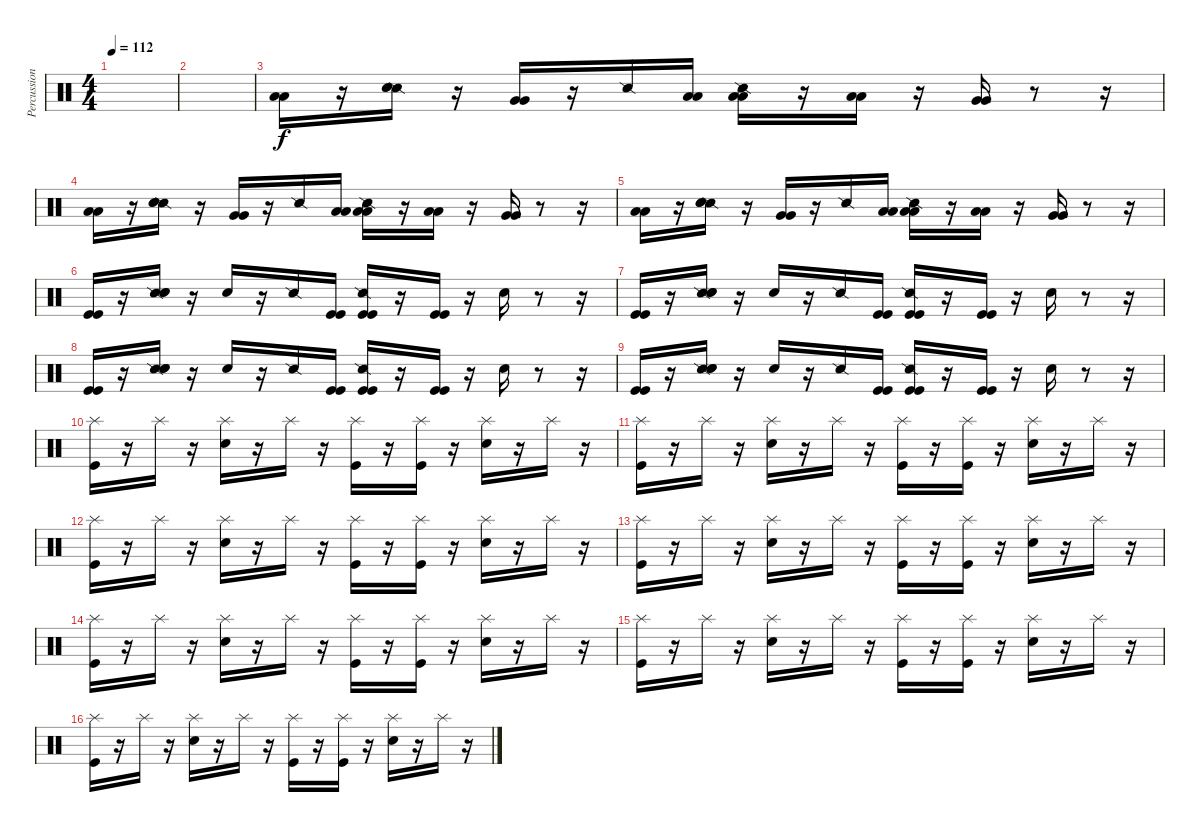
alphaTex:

\track ("Percussions" "Percussion") {instrument percussion}
\staff {score}
\articulation defaults
\ts (4 4)
\tempo 112
\clef neutral
\ks c
|
|
("Low Floor Tom (hit)" "Low Floor Tom (hit)").16 r.16 ("Snare (side stick) 2" "Snare (hit)"{x} "Snare (hit)"{x}).16 r.16 ("Very Low Tom (hit)" "Very Low Tom (hit)").16 r.16 "Snare (side stick) 2".16 ("Low Floor Tom (hit)" "Low Floor Tom (hit)").16 ("Snare (side stick) 2" "Low Floor Tom (hit)" "Low Floor Tom (hit)").16 r.16 ("Low Floor Tom (hit)" "Low Floor Tom (hit)").16 r.16 ("Very Low Tom (hit)" "Very Low Tom (hit)").16 r.8 r.16 |
("Low Floor Tom (hit)" "Low Floor Tom (hit)").16 r.16 ("Snare (side stick) 2" "Snare (hit)"{x} "Snare (hit)"{x}).16 r.16 ("Very Low Tom (hit)" "Very Low Tom (hit)").16 r.16 "Snare (side stick) 2".16 ("Low Floor Tom (hit)" "Low Floor Tom (hit)").16 ("Snare (side stick) 2" "Low Floor Tom (hit)" "Low Floor Tom (hit)").16 r.16 ("Low Floor Tom (hit)" "Low Floor Tom (hit)").16 r.16 ("Very Low Tom (hit)" "Very Low Tom (hit)").16 r.8 r.16 |
("Low Floor Tom (hit)" "Low Floor Tom (hit)").16 r.16 ("Snare (side stick) 2" "Snare (hit)"{x} "Snare (hit)"{x}).16 r.16 ("Very Low Tom (hit)" "Very Low Tom (hit)").16 r.16 "Snare (side stick) 2".16 ("Low Floor Tom (hit)" "Low Floor Tom (hit)").16 ("Snare (side stick) 2" "Low Floor Tom (hit)" "Low Floor Tom (hit)").16 r.16 ("Low Floor Tom (hit)" "Low Floor Tom (hit)").16 r.16 ("Very Low Tom (hit)" "Very Low Tom (hit)").16 r.8 r.16 |
("Kick (hit)" "Kick (hit)").16 r.16 ("Snare (side stick) 2" "Snare (hit)"{x} "Snare (hit)"{x}).16 r.16 "Electric Snare (hit)".16 r.16 "Snare (side stick) 2".16 ("Kick (hit)" "Kick (hit)").16 ("Snare (side stick) 2" "Kick (hit)" "Kick (hit)").16 r.16 ("Kick (hit)" "Kick (hit)").16 r.16 "Electric Snare (hit)".16 r.8 r.16 |
("Kick (hit)" "Kick (hit)").16 r.16 ("Snare (side stick) 2" "Snare (hit)"{x} "Snare (hit)"{x}).16 r.16 "Electric Snare (hit)".16 r.16 "Snare (side stick) 2".16 ("Kick (hit)" "Kick (hit)").16 ("Snare (side stick) 2" "Kick (hit)" "Kick (hit)").16 r.16 ("Kick (hit)" "Kick (hit)").16 r.16 "Electric Snare (hit)".16 r.8 r.16 |
("Kick (hit)" "Kick (hit)").16 r.16 ("Snare (side stick) 2" "Snare (hit)"{x} "Snare (hit)"{x}).16 r.16 "Electric Snare (hit)".16 r.16 "Snare (side stick) 2".16 ("Kick (hit)" "Kick (hit)").16 ("Snare (side stick) 2" "Kick (hit)" "Kick (hit)").16 r.16 ("Kick (hit)" "Kick (hit)").16 r.16 "Electric Snare (hit)".16 r.8 r.16 |
("Kick (hit)" "Kick (hit)").16 r.16 ("Snare (side stick) 2" "Snare (hit)"{x} "Snare (hit)"{x}).16 r.16 "Electric Snare (hit)".16 r.16 "Snare (side stick) 2".16 ("Kick (hit)" "Kick (hit)").16 ("Snare (side stick) 2" "Kick (hit)" "Kick (hit)").16 r.16 ("Kick (hit)" "Kick (hit)").16 r.16 "Electric Snare (hit)".16 r.8 r.16 |
("Splash (hit)" "Kick (hit)").16 r.16 "Splash (hit)".16 r.16 ("Splash (hit)" "Electric Snare (hit)").16 r.16 "Splash (hit)".16 r.16 ("Splash (hit)" "Kick (hit)").16 r.16 ("Splash (hit)" "Kick (hit)").16 r.16 ("Splash (hit)" "Electric Snare (hit)").16 r.16 "Splash (hit)".16 r.16 |
("Splash (hit)" "Kick (hit)").16 r.16 "Splash (hit)".16 r.16 ("Splash (hit)" "Electric Snare (hit)").16 r.16 "Splash (hit)".16 r.16 ("Splash (hit)" "Kick (hit)").16 r.16 ("Splash (hit)" "Kick (hit)").16 r.16 ("Splash (hit)" "Electric Snare (hit)").16 r.16 "Splash (hit)".16 r.16 |
("Splash (hit)" "Kick (hit)").16 r.16 "Splash (hit)".16 r.16 ("Splash (hit)" "Electric Snare (hit)").16 r.16 "Splash (hit)".16 r.16 ("Splash (hit)" "Kick (hit)").16 r.16 ("Splash (hit)" "Kick (hit)").16 r.16 ("Splash (hit)" "Electric Snare (hit)").16 r.16 "Splash (hit)".16 r.16 |
("Splash (hit)" "Kick (hit)").16 r.16 "Splash (hit)".16 r.16 ("Splash (hit)" "Electric Snare (hit)").16 r.16 "Splash (hit)".16 r.16 ("Splash (hit)" "Kick (hit)").16 r.16 ("Splash (hit)" "Kick (hit)").16 r.16 ("Splash (hit)" "Electric Snare (hit)").16 r.16 "Splash (hit)".16 r.16 |
("Splash (hit)" "Kick (hit)").16 r.16 "Splash (hit)".16 r.16 ("Splash (hit)" "Electric Snare (hit)").16 r.16 "Splash (hit)".16 r.16 ("Splash (hit)" "Kick (hit)").16 r.16 ("Splash (hit)" "Kick (hit)").16 r.16 ("Splash (hit)" "Electric Snare (hit)").16 r.16 "Splash (hit)".16 r.16 |
("Splash (hit)" "Kick (hit)").16 r.16 "Splash (hit)".16 r.16 ("Splash (hit)" "Electric Snare (hit)").16 r.16 "Splash (hit)".16 r.16 ("Splash (hit)" "Kick (hit)").16 r.16 ("Splash (hit)" "Kick (hit)").16 r.16 ("Splash (hit)" "Electric Snare (hit)").16 r.16 "Splash (hit)".16 r.16 |
("Splash (hit)" "Kick (hit)").16 r.16 "Splash (hit)".16 r.16 ("Splash (hit)" "Electric Snare (hit)").16 r.16 "Splash (hit)".16 r.16 ("Splash (hit)" "Kick (hit)").16 r.16 ("Splash (hit)" "Kick (hit)").16 r.16 ("Splash (hit)" "Electric Snare (hit)").16 r.16 "Splash (hit)".16 r.16
